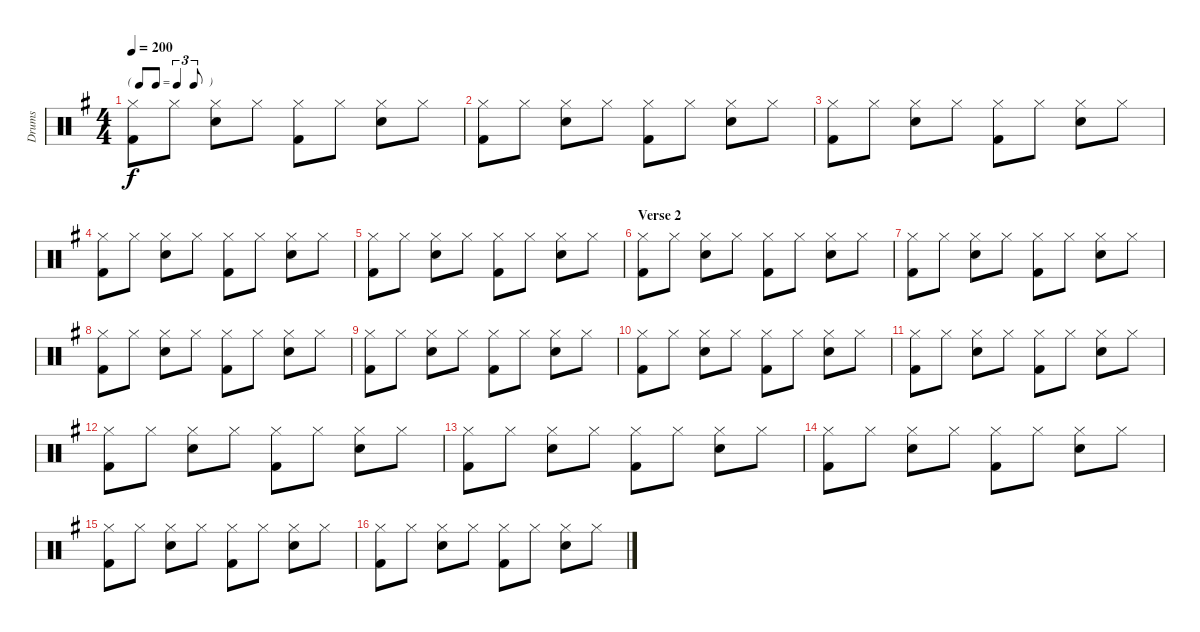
\track ("Drums" "Drums") {instrument percussion}
\staff {score}
\articulation defaults
\ts (4 4)
\tf triplet8th
\tempo 200
\clef neutral
\ks g
("Hi-Hat (closed)" "Kick (hit) 2").8{dy f} "Hi-Hat (closed)".8 ("Hi-Hat (closed)" "Snare (hit) 2").8 "Hi-Hat (closed)".8 ("Hi-Hat (closed)" "Kick (hit) 2").8 "Hi-Hat (closed)".8 ("Hi-Hat (closed)" "Snare (hit) 2").8 "Hi-Hat (closed)".8 |
("Hi-Hat (closed)" "Kick (hit) 2").8 "Hi-Hat (closed)".8 ("Hi-Hat (closed)" "Snare (hit) 2").8 "Hi-Hat (closed)".8 ("Hi-Hat (closed)" "Kick (hit) 2").8 "Hi-Hat (closed)".8 ("Hi-Hat (closed)" "Snare (hit) 2").8 "Hi-Hat (closed)".8 |
("Hi-Hat (closed)" "Kick (hit) 2").8 "Hi-Hat (closed)".8 ("Hi-Hat (closed)" "Snare (hit) 2").8 "Hi-Hat (closed)".8 ("Hi-Hat (closed)" "Kick (hit) 2").8 "Hi-Hat (closed)".8 ("Hi-Hat (closed)" "Snare (hit) 2").8 "Hi-Hat (closed)".8 |
("Hi-Hat (closed)" "Kick (hit) 2").8 "Hi-Hat (closed)".8 ("Hi-Hat (closed)" "Snare (hit) 2").8 "Hi-Hat (closed)".8 ("Hi-Hat (closed)" "Kick (hit) 2").8 "Hi-Hat (closed)".8 ("Hi-Hat (closed)" "Snare (hit) 2").8 "Hi-Hat (closed)".8 |
("Hi-Hat (closed)" "Kick (hit) 2").8 "Hi-Hat (closed)".8 ("Hi-Hat (closed)" "Snare (hit) 2").8 "Hi-Hat (closed)".8 ("Hi-Hat (closed)" "Kick (hit) 2").8 "Hi-Hat (closed)".8 ("Hi-Hat (closed)" "Snare (hit) 2").8 "Hi-Hat (closed)".8 |
\section ("" "Verse 2")
("Hi-Hat (closed)" "Kick (hit) 2").8 "Hi-Hat (closed)".8 ("Hi-Hat (closed)" "Snare (hit) 2").8 "Hi-Hat (closed)".8 ("Hi-Hat (closed)" "Kick (hit) 2").8 "Hi-Hat (closed)".8 ("Hi-Hat (closed)" "Snare (hit) 2").8 "Hi-Hat (closed)".8 |
("Hi-Hat (closed)" "Kick (hit) 2").8 "Hi-Hat (closed)".8 ("Hi-Hat (closed)" "Snare (hit) 2").8 "Hi-Hat (closed)".8 ("Hi-Hat (closed)" "Kick (hit) 2").8 "Hi-Hat (closed)".8 ("Hi-Hat (closed)" "Snare (hit) 2").8 "Hi-Hat (closed)".8 |
("Hi-Hat (closed)" "Kick (hit) 2").8 "Hi-Hat (closed)".8 ("Hi-Hat (closed)" "Snare (hit) 2").8 "Hi-Hat (closed)".8 ("Hi-Hat (closed)" "Kick (hit) 2").8 "Hi-Hat (closed)".8 ("Hi-Hat (closed)" "Snare (hit) 2").8 "Hi-Hat (closed)".8 |
("Hi-Hat (closed)" "Kick (hit) 2").8 "Hi-Hat (closed)".8 ("Hi-Hat (closed)" "Snare (hit) 2").8 "Hi-Hat (closed)".8 ("Hi-Hat (closed)" "Kick (hit) 2").8 "Hi-Hat (closed)".8 ("Hi-Hat (closed)" "Snare (hit) 2").8 "Hi-Hat (closed)".8 |
("Hi-Hat (closed)" "Kick (hit) 2").8 "Hi-Hat (closed)".8 ("Hi-Hat (closed)" "Snare (hit) 2").8 "Hi-Hat (closed)".8 ("Hi-Hat (closed)" "Kick (hit) 2").8 "Hi-Hat (closed)".8 ("Hi-Hat (closed)" "Snare (hit) 2").8 "Hi-Hat (closed)".8 |
("Hi-Hat (closed)" "Kick (hit) 2").8 "Hi-Hat (closed)".8 ("Hi-Hat (closed)" "Snare (hit) 2").8 "Hi-Hat (closed)".8 ("Hi-Hat (closed)" "Kick (hit) 2").8 "Hi-Hat (closed)".8 ("Hi-Hat (closed)" "Snare (hit) 2").8 "Hi-Hat (closed)".8 |
("Hi-Hat (closed)" "Kick (hit) 2").8 "Hi-Hat (closed)".8 ("Hi-Hat (closed)" "Snare (hit) 2").8 "Hi-Hat (closed)".8 ("Hi-Hat (closed)" "Kick (hit) 2").8 "Hi-Hat (closed)".8 ("Hi-Hat (closed)" "Snare (hit) 2").8 "Hi-Hat (closed)".8 |
("Hi-Hat (closed)" "Kick (hit) 2").8 "Hi-Hat (closed)".8 ("Hi-Hat (closed)" "Snare (hit) 2").8 "Hi-Hat (closed)".8 ("Hi-Hat (closed)" "Kick (hit) 2").8 "Hi-Hat (closed)".8 ("Hi-Hat (closed)" "Snare (hit) 2").8 "Hi-Hat (closed)".8 |
("Hi-Hat (closed)" "Kick (hit) 2").8 "Hi-Hat (closed)".8 ("Hi-Hat (closed)" "Snare (hit) 2").8 "Hi-Hat (closed)".8 ("Hi-Hat (closed)" "Kick (hit) 2").8 "Hi-Hat (closed)".8 ("Hi-Hat (closed)" "Snare (hit) 2").8 "Hi-Hat (closed)".8 |
("Hi-Hat (closed)" "Kick (hit) 2").8 "Hi-Hat (closed)".8 ("Hi-Hat (closed)" "Snare (hit) 2").8 "Hi-Hat (closed)".8 ("Hi-Hat (closed)" "Kick (hit) 2").8 "Hi-Hat (closed)".8 ("Hi-Hat (closed)" "Snare (hit) 2").8 "Hi-Hat (closed)".8 |
("Hi-Hat (closed)" "Kick (hit) 2").8 "Hi-Hat (closed)".8 ("Hi-Hat (closed)" "Snare (hit) 2").8 "Hi-Hat (closed)".8 ("Hi-Hat (closed)" "Kick (hit) 2").8 "Hi-Hat (closed)".8 ("Hi-Hat (closed)" "Snare (hit) 2").8 "Hi-Hat (closed)".8
